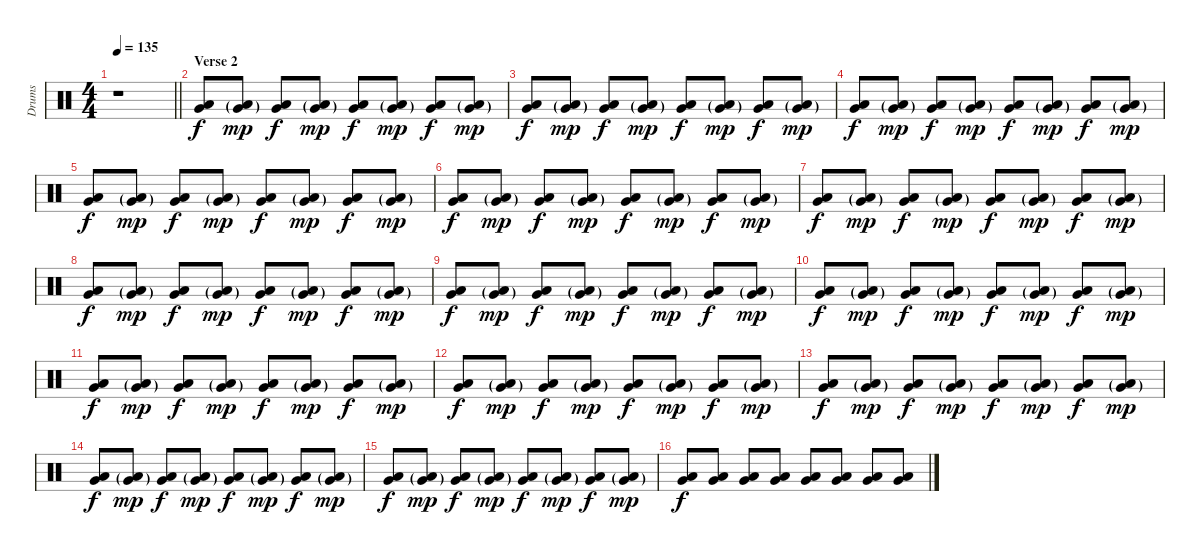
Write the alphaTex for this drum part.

\track ("Drums" "Drums") {instrument percussion}
\staff {score}
\articulation defaults
\ts (4 4)
\tempo 135
\clef neutral
\barLineRight lightlight
\ks c
r.1{dy f} |
\section ("" "Verse 2")
("Very Low Tom (hit)" "Low Tom (hit)").8{volume 6} ("Very Low Tom (hit)"{g} "Low Tom (hit)"{g}).8{dy mp} ("Very Low Tom (hit)" "Low Tom (hit)").8{dy f} ("Very Low Tom (hit)"{g} "Low Tom (hit)"{g}).8{dy mp} ("Very Low Tom (hit)" "Low Tom (hit)").8{dy f} ("Very Low Tom (hit)"{g} "Low Tom (hit)"{g}).8{dy mp} ("Very Low Tom (hit)" "Low Tom (hit)").8{dy f} ("Very Low Tom (hit)"{g} "Low Tom (hit)"{g}).8{dy mp} |
("Very Low Tom (hit)" "Low Tom (hit)").8{dy f} ("Very Low Tom (hit)"{g} "Low Tom (hit)"{g}).8{dy mp} ("Very Low Tom (hit)" "Low Tom (hit)").8{dy f} ("Very Low Tom (hit)"{g} "Low Tom (hit)"{g}).8{dy mp} ("Very Low Tom (hit)" "Low Tom (hit)").8{dy f} ("Very Low Tom (hit)"{g} "Low Tom (hit)"{g}).8{dy mp} ("Very Low Tom (hit)" "Low Tom (hit)").8{dy f} ("Very Low Tom (hit)"{g} "Low Tom (hit)"{g}).8{dy mp} |
("Very Low Tom (hit)" "Low Tom (hit)").8{dy f} ("Very Low Tom (hit)"{g} "Low Tom (hit)"{g}).8{dy mp} ("Very Low Tom (hit)" "Low Tom (hit)").8{dy f} ("Very Low Tom (hit)"{g} "Low Tom (hit)"{g}).8{dy mp} ("Very Low Tom (hit)" "Low Tom (hit)").8{dy f} ("Very Low Tom (hit)"{g} "Low Tom (hit)"{g}).8{dy mp} ("Very Low Tom (hit)" "Low Tom (hit)").8{dy f} ("Very Low Tom (hit)"{g} "Low Tom (hit)"{g}).8{dy mp} |
("Very Low Tom (hit)" "Low Tom (hit)").8{dy f} ("Very Low Tom (hit)"{g} "Low Tom (hit)"{g}).8{dy mp} ("Very Low Tom (hit)" "Low Tom (hit)").8{dy f} ("Very Low Tom (hit)"{g} "Low Tom (hit)"{g}).8{dy mp} ("Very Low Tom (hit)" "Low Tom (hit)").8{dy f} ("Very Low Tom (hit)"{g} "Low Tom (hit)"{g}).8{dy mp} ("Very Low Tom (hit)" "Low Tom (hit)").8{dy f} ("Very Low Tom (hit)"{g} "Low Tom (hit)"{g}).8{dy mp} |
("Very Low Tom (hit)" "Low Tom (hit)").8{dy f} ("Very Low Tom (hit)"{g} "Low Tom (hit)"{g}).8{dy mp} ("Very Low Tom (hit)" "Low Tom (hit)").8{dy f} ("Very Low Tom (hit)"{g} "Low Tom (hit)"{g}).8{dy mp} ("Very Low Tom (hit)" "Low Tom (hit)").8{dy f} ("Very Low Tom (hit)"{g} "Low Tom (hit)"{g}).8{dy mp} ("Very Low Tom (hit)" "Low Tom (hit)").8{dy f} ("Very Low Tom (hit)"{g} "Low Tom (hit)"{g}).8{dy mp} |
("Very Low Tom (hit)" "Low Tom (hit)").8{dy f} ("Very Low Tom (hit)"{g} "Low Tom (hit)"{g}).8{dy mp} ("Very Low Tom (hit)" "Low Tom (hit)").8{dy f} ("Very Low Tom (hit)"{g} "Low Tom (hit)"{g}).8{dy mp} ("Very Low Tom (hit)" "Low Tom (hit)").8{dy f} ("Very Low Tom (hit)"{g} "Low Tom (hit)"{g}).8{dy mp} ("Very Low Tom (hit)" "Low Tom (hit)").8{dy f} ("Very Low Tom (hit)"{g} "Low Tom (hit)"{g}).8{dy mp} |
("Very Low Tom (hit)" "Low Tom (hit)").8{dy f} ("Very Low Tom (hit)"{g} "Low Tom (hit)"{g}).8{dy mp} ("Very Low Tom (hit)" "Low Tom (hit)").8{dy f} ("Very Low Tom (hit)"{g} "Low Tom (hit)"{g}).8{dy mp} ("Very Low Tom (hit)" "Low Tom (hit)").8{dy f} ("Very Low Tom (hit)"{g} "Low Tom (hit)"{g}).8{dy mp} ("Very Low Tom (hit)" "Low Tom (hit)").8{dy f} ("Very Low Tom (hit)"{g} "Low Tom (hit)"{g}).8{dy mp} |
("Very Low Tom (hit)" "Low Tom (hit)").8{dy f} ("Very Low Tom (hit)"{g} "Low Tom (hit)"{g}).8{dy mp} ("Very Low Tom (hit)" "Low Tom (hit)").8{dy f} ("Very Low Tom (hit)"{g} "Low Tom (hit)"{g}).8{dy mp} ("Very Low Tom (hit)" "Low Tom (hit)").8{dy f} ("Very Low Tom (hit)"{g} "Low Tom (hit)"{g}).8{dy mp} ("Very Low Tom (hit)" "Low Tom (hit)").8{dy f} ("Very Low Tom (hit)"{g} "Low Tom (hit)"{g}).8{dy mp} |
("Very Low Tom (hit)" "Low Tom (hit)").8{dy f} ("Very Low Tom (hit)"{g} "Low Tom (hit)"{g}).8{dy mp} ("Very Low Tom (hit)" "Low Tom (hit)").8{dy f} ("Very Low Tom (hit)"{g} "Low Tom (hit)"{g}).8{dy mp} ("Very Low Tom (hit)" "Low Tom (hit)").8{dy f} ("Very Low Tom (hit)"{g} "Low Tom (hit)"{g}).8{dy mp} ("Very Low Tom (hit)" "Low Tom (hit)").8{dy f} ("Very Low Tom (hit)"{g} "Low Tom (hit)"{g}).8{dy mp} |
("Very Low Tom (hit)" "Low Tom (hit)").8{dy f} ("Very Low Tom (hit)"{g} "Low Tom (hit)"{g}).8{dy mp} ("Very Low Tom (hit)" "Low Tom (hit)").8{dy f} ("Very Low Tom (hit)"{g} "Low Tom (hit)"{g}).8{dy mp} ("Very Low Tom (hit)" "Low Tom (hit)").8{dy f} ("Very Low Tom (hit)"{g} "Low Tom (hit)"{g}).8{dy mp} ("Very Low Tom (hit)" "Low Tom (hit)").8{dy f} ("Very Low Tom (hit)"{g} "Low Tom (hit)"{g}).8{dy mp} |
("Very Low Tom (hit)" "Low Tom (hit)").8{dy f} ("Very Low Tom (hit)"{g} "Low Tom (hit)"{g}).8{dy mp} ("Very Low Tom (hit)" "Low Tom (hit)").8{dy f} ("Very Low Tom (hit)"{g} "Low Tom (hit)"{g}).8{dy mp} ("Very Low Tom (hit)" "Low Tom (hit)").8{dy f} ("Very Low Tom (hit)"{g} "Low Tom (hit)"{g}).8{dy mp} ("Very Low Tom (hit)" "Low Tom (hit)").8{dy f} ("Very Low Tom (hit)"{g} "Low Tom (hit)"{g}).8{dy mp} |
("Very Low Tom (hit)" "Low Tom (hit)").8{dy f} ("Very Low Tom (hit)"{g} "Low Tom (hit)"{g}).8{dy mp} ("Very Low Tom (hit)" "Low Tom (hit)").8{dy f} ("Very Low Tom (hit)"{g} "Low Tom (hit)"{g}).8{dy mp} ("Very Low Tom (hit)" "Low Tom (hit)").8{dy f} ("Very Low Tom (hit)"{g} "Low Tom (hit)"{g}).8{dy mp} ("Very Low Tom (hit)" "Low Tom (hit)").8{dy f} ("Very Low Tom (hit)"{g} "Low Tom (hit)"{g}).8{dy mp} |
("Very Low Tom (hit)" "Low Tom (hit)").8{dy f} ("Very Low Tom (hit)"{g} "Low Tom (hit)"{g}).8{dy mp} ("Very Low Tom (hit)" "Low Tom (hit)").8{dy f} ("Very Low Tom (hit)"{g} "Low Tom (hit)"{g}).8{dy mp} ("Very Low Tom (hit)" "Low Tom (hit)").8{dy f} ("Very Low Tom (hit)"{g} "Low Tom (hit)"{g}).8{dy mp} ("Very Low Tom (hit)" "Low Tom (hit)").8{dy f} ("Very Low Tom (hit)"{g} "Low Tom (hit)"{g}).8{dy mp} |
("Very Low Tom (hit)" "Low Tom (hit)").8{dy f volume 13} ("Very Low Tom (hit)"{g} "Low Tom (hit)"{g}).8{dy mp} ("Very Low Tom (hit)" "Low Tom (hit)").8{dy f} ("Very Low Tom (hit)"{g} "Low Tom (hit)"{g}).8{dy mp} ("Very Low Tom (hit)" "Low Tom (hit)").8{dy f} ("Very Low Tom (hit)"{g} "Low Tom (hit)"{g}).8{dy mp} ("Very Low Tom (hit)" "Low Tom (hit)").8{dy f} ("Very Low Tom (hit)"{g} "Low Tom (hit)"{g}).8{dy mp} |
("Very Low Tom (hit)" "Low Tom (hit)").8{dy f} ("Very Low Tom (hit)" "Low Tom (hit)").8 ("Very Low Tom (hit)" "Low Tom (hit)").8 ("Very Low Tom (hit)" "Low Tom (hit)").8 ("Very Low Tom (hit)" "Low Tom (hit)").8 ("Very Low Tom (hit)" "Low Tom (hit)").8 ("Very Low Tom (hit)" "Low Tom (hit)").8 ("Very Low Tom (hit)" "Low Tom (hit)").8
